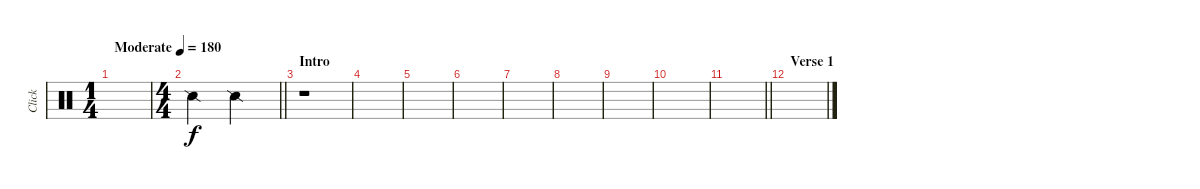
\track ("Click" "Click") {instrument percussion}
\staff {score}
\articulation defaults
\ts (1 4)
\tempo (180 "Moderate")
\clef neutral
\ks c
|
\ts (4 4)
\barLineRight lightlight "Snare (side stick) 2".2 "Snare (side stick) 2".2
|
\section ("" "Intro")
r.1 |
|
|
|
|
|
|
|
\barLineRight lightlight
|
\section ("" "Verse 1")
